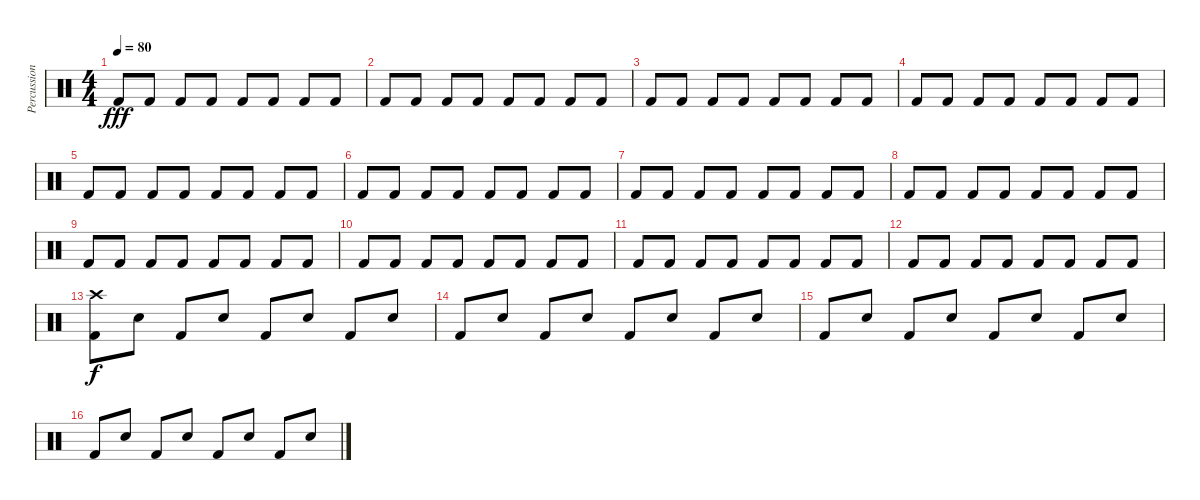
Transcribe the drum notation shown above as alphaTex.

\track ("Percussion" "Percussion") {instrument percussion}
\staff {score}
\articulation defaults
\ts (4 4)
\tempo 80
\clef neutral
\ks c "Kick (hit) 2".8{dy fff} "Kick (hit) 2".8 "Kick (hit) 2".8 "Kick (hit) 2".8 "Kick (hit) 2".8 "Kick (hit) 2".8 "Kick (hit) 2".8 "Kick (hit) 2".8
|
"Kick (hit) 2".8 "Kick (hit) 2".8 "Kick (hit) 2".8 "Kick (hit) 2".8 "Kick (hit) 2".8 "Kick (hit) 2".8 "Kick (hit) 2".8 "Kick (hit) 2".8 |
"Kick (hit) 2".8 "Kick (hit) 2".8 "Kick (hit) 2".8 "Kick (hit) 2".8 "Kick (hit) 2".8 "Kick (hit) 2".8 "Kick (hit) 2".8 "Kick (hit) 2".8 |
"Kick (hit) 2".8 "Kick (hit) 2".8 "Kick (hit) 2".8 "Kick (hit) 2".8 "Kick (hit) 2".8 "Kick (hit) 2".8 "Kick (hit) 2".8 "Kick (hit) 2".8 |
"Kick (hit) 2".8 "Kick (hit) 2".8 "Kick (hit) 2".8 "Kick (hit) 2".8 "Kick (hit) 2".8 "Kick (hit) 2".8 "Kick (hit) 2".8 "Kick (hit) 2".8 |
"Kick (hit) 2".8 "Kick (hit) 2".8 "Kick (hit) 2".8 "Kick (hit) 2".8 "Kick (hit) 2".8 "Kick (hit) 2".8 "Kick (hit) 2".8 "Kick (hit) 2".8 |
"Kick (hit) 2".8 "Kick (hit) 2".8 "Kick (hit) 2".8 "Kick (hit) 2".8 "Kick (hit) 2".8 "Kick (hit) 2".8 "Kick (hit) 2".8 "Kick (hit) 2".8 |
"Kick (hit) 2".8 "Kick (hit) 2".8 "Kick (hit) 2".8 "Kick (hit) 2".8 "Kick (hit) 2".8 "Kick (hit) 2".8 "Kick (hit) 2".8 "Kick (hit) 2".8 |
"Kick (hit) 2".8 "Kick (hit) 2".8 "Kick (hit) 2".8 "Kick (hit) 2".8 "Kick (hit) 2".8 "Kick (hit) 2".8 "Kick (hit) 2".8 "Kick (hit) 2".8 |
"Kick (hit) 2".8 "Kick (hit) 2".8 "Kick (hit) 2".8 "Kick (hit) 2".8 "Kick (hit) 2".8 "Kick (hit) 2".8 "Kick (hit) 2".8 "Kick (hit) 2".8 |
"Kick (hit) 2".8 "Kick (hit) 2".8 "Kick (hit) 2".8 "Kick (hit) 2".8 "Kick (hit) 2".8 "Kick (hit) 2".8 "Kick (hit) 2".8 "Kick (hit) 2".8 |
"Kick (hit) 2".8 "Kick (hit) 2".8 "Kick (hit) 2".8 "Kick (hit) 2".8 "Kick (hit) 2".8 "Kick (hit) 2".8 "Kick (hit) 2".8 "Kick (hit) 2".8 |
("Kick (hit) 2" "Crash high (hit)").8{dy f} "Electric Snare (hit)".8 "Kick (hit) 2".8 "Electric Snare (hit)".8 "Kick (hit) 2".8 "Electric Snare (hit)".8 "Kick (hit) 2".8 "Electric Snare (hit)".8 |
"Kick (hit) 2".8 "Electric Snare (hit)".8 "Kick (hit) 2".8 "Electric Snare (hit)".8 "Kick (hit) 2".8 "Electric Snare (hit)".8 "Kick (hit) 2".8 "Electric Snare (hit)".8 |
"Kick (hit) 2".8 "Electric Snare (hit)".8 "Kick (hit) 2".8 "Electric Snare (hit)".8 "Kick (hit) 2".8 "Electric Snare (hit)".8 "Kick (hit) 2".8 "Electric Snare (hit)".8 |
"Kick (hit) 2".8 "Electric Snare (hit)".8 "Kick (hit) 2".8 "Electric Snare (hit)".8 "Kick (hit) 2".8 "Electric Snare (hit)".8 "Kick (hit) 2".8 "Electric Snare (hit)".8
